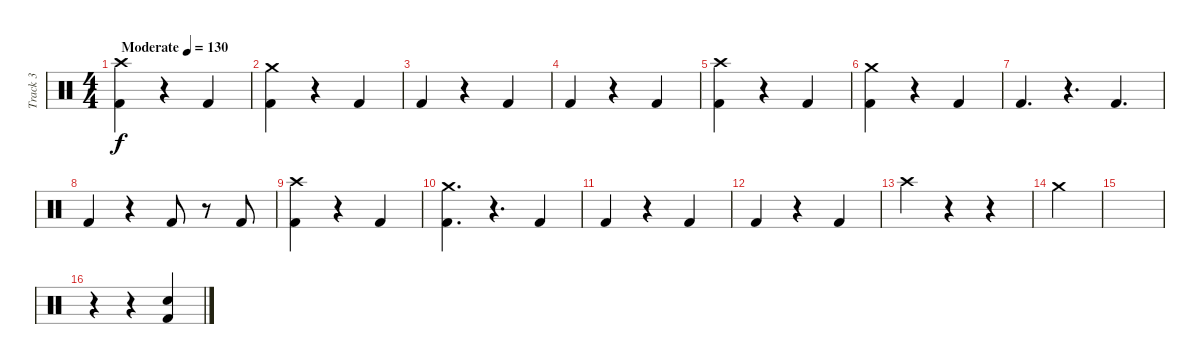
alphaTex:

\track ("Track 3" "Track 3") {instrument percussion}
\staff {score}
\articulation defaults
\ts (4 4)
\tempo (130 "Moderate")
\clef neutral
\ks c
("Crash high (hit)" "Kick (hit) 2").4{dy f} r.4 "Kick (hit) 2".4 |
("Crash medium (hit)" "Kick (hit) 2").4 r.4 "Kick (hit) 2".4 |
"Kick (hit) 2".4 r.4 "Kick (hit) 2".4 |
"Kick (hit) 2".4 r.4 "Kick (hit) 2".4 |
("Crash high (hit)" "Kick (hit) 2").4 r.4 "Kick (hit) 2".4 |
("Crash medium (hit)" "Kick (hit) 2").4 r.4 "Kick (hit) 2".4 |
"Kick (hit) 2".4{d} r.4{d} "Kick (hit) 2".4{d} |
"Kick (hit) 2".4 r.4 "Kick (hit) 2".8 r.8 "Kick (hit) 2".8 |
("Crash high (hit)" "Kick (hit) 2").4 r.4 "Kick (hit) 2".4 |
("Crash medium (hit)" "Kick (hit) 2").4{d} r.4{d} "Kick (hit) 2".4 |
"Kick (hit) 2".4 r.4 "Kick (hit) 2".4 |
"Kick (hit) 2".4 r.4 "Kick (hit) 2".4 |
"Crash high (hit)".4 r.4 r.4 |
"Crash medium (hit)".4 |
|
r.4 r.4 ("Snare (hit) 2" "Kick (hit) 2").4
